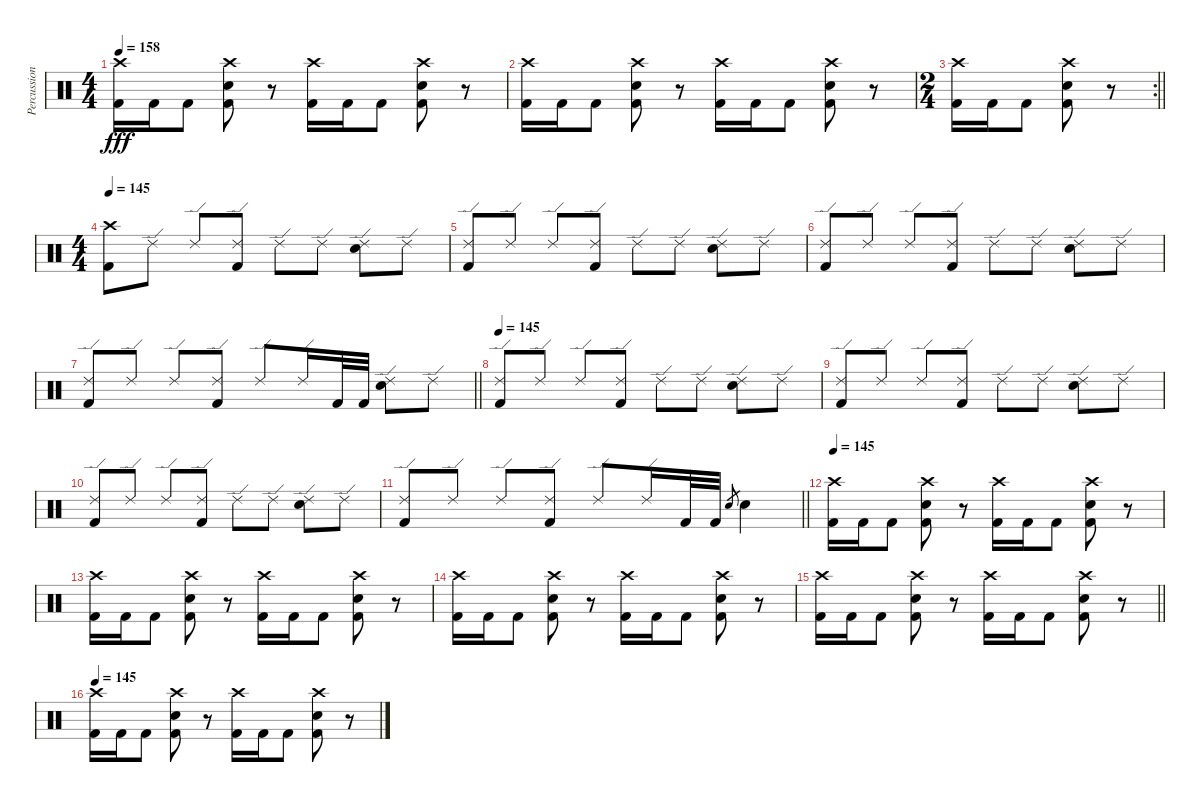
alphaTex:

\track ("Percussion" "Percussion") {instrument percussion}
\staff {score}
\articulation defaults
\ts (4 4)
\tempo 158
\clef neutral
\ks c
("Crash high (hit)" "Kick (hit) 2").16{dy fff} "Kick (hit) 2".16 "Kick (hit) 2".8 ("Crash high (hit)" "Snare (hit) 2" "Kick (hit) 2").8 r.8 ("Crash high (hit)" "Kick (hit) 2").16 "Kick (hit) 2".16 "Kick (hit) 2".8 ("Crash high (hit)" "Snare (hit) 2" "Kick (hit) 2").8 r.8 |
("Crash high (hit)" "Kick (hit) 2").16 "Kick (hit) 2".16 "Kick (hit) 2".8 ("Crash high (hit)" "Snare (hit) 2" "Kick (hit) 2").8 r.8 ("Crash high (hit)" "Kick (hit) 2").16 "Kick (hit) 2".16 "Kick (hit) 2".8 ("Crash high (hit)" "Snare (hit) 2" "Kick (hit) 2").8 r.8 |
\rc 2
\ts (2 4)
\barLineRight lightlight
("Crash high (hit)" "Kick (hit) 2").16 "Kick (hit) 2".16 "Kick (hit) 2".8 ("Crash high (hit)" "Snare (hit) 2" "Kick (hit) 2").8 r.8 |
\ts (4 4)
\section ("" "")
\tempo 145
("Crash high (hit)" "Kick (hit) 2").8 "Ride (edge) 2".8 "Ride (edge) 2".8 ("Ride (edge) 2" "Kick (hit) 2").8 "Ride (edge) 2".8 "Ride (edge) 2".8 ("Ride (edge) 2" "Snare (hit) 2").8 "Ride (edge) 2".8 |
("Ride (edge) 2" "Kick (hit) 2").8 "Ride (edge) 2".8 "Ride (edge) 2".8 ("Ride (edge) 2" "Kick (hit) 2").8 "Ride (edge) 2".8 "Ride (edge) 2".8 ("Ride (edge) 2" "Snare (hit) 2").8 "Ride (edge) 2".8 |
("Ride (edge) 2" "Kick (hit) 2").8 "Ride (edge) 2".8 "Ride (edge) 2".8 ("Ride (edge) 2" "Kick (hit) 2").8 "Ride (edge) 2".8 "Ride (edge) 2".8 ("Ride (edge) 2" "Snare (hit) 2").8 "Ride (edge) 2".8 |
\barLineRight lightlight
("Ride (edge) 2" "Kick (hit) 2").8 "Ride (edge) 2".8 "Ride (edge) 2".8 ("Ride (edge) 2" "Kick (hit) 2").8 "Ride (edge) 2".8 "Ride (edge) 2".16 "Kick (hit) 2".32 "Kick (hit) 2".32 ("Ride (edge) 2" "Snare (hit) 2").8 "Ride (edge) 2".8 |
\tempo 145
("Ride (edge) 2" "Kick (hit) 2").8 "Ride (edge) 2".8 "Ride (edge) 2".8 ("Ride (edge) 2" "Kick (hit) 2").8 "Ride (edge) 2".8 "Ride (edge) 2".8 ("Ride (edge) 2" "Snare (hit) 2").8 "Ride (edge) 2".8 |
("Ride (edge) 2" "Kick (hit) 2").8 "Ride (edge) 2".8 "Ride (edge) 2".8 ("Ride (edge) 2" "Kick (hit) 2").8 "Ride (edge) 2".8 "Ride (edge) 2".8 ("Ride (edge) 2" "Snare (hit) 2").8 "Ride (edge) 2".8 |
("Ride (edge) 2" "Kick (hit) 2").8 "Ride (edge) 2".8 "Ride (edge) 2".8 ("Ride (edge) 2" "Kick (hit) 2").8 "Ride (edge) 2".8 "Ride (edge) 2".8 ("Ride (edge) 2" "Snare (hit) 2").8 "Ride (edge) 2".8 |
\barLineRight lightlight
("Ride (edge) 2" "Kick (hit) 2").8 "Ride (edge) 2".8 "Ride (edge) 2".8 ("Ride (edge) 2" "Kick (hit) 2").8 "Ride (edge) 2".8 "Ride (edge) 2".16 "Kick (hit) 2".32 "Kick (hit) 2".32 "Snare (hit) 2".8{gr} "Snare (hit) 2".4 |
\tempo 145
("Crash high (hit)" "Kick (hit) 2").16 "Kick (hit) 2".16 "Kick (hit) 2".8 ("Crash high (hit)" "Snare (hit) 2" "Kick (hit) 2").8 r.8 ("Crash high (hit)" "Kick (hit) 2").16 "Kick (hit) 2".16 "Kick (hit) 2".8 ("Crash high (hit)" "Snare (hit) 2" "Kick (hit) 2").8 r.8 |
("Crash high (hit)" "Kick (hit) 2").16 "Kick (hit) 2".16 "Kick (hit) 2".8 ("Crash high (hit)" "Snare (hit) 2" "Kick (hit) 2").8 r.8 ("Crash high (hit)" "Kick (hit) 2").16 "Kick (hit) 2".16 "Kick (hit) 2".8 ("Crash high (hit)" "Snare (hit) 2" "Kick (hit) 2").8 r.8 |
("Crash high (hit)" "Kick (hit) 2").16 "Kick (hit) 2".16 "Kick (hit) 2".8 ("Crash high (hit)" "Snare (hit) 2" "Kick (hit) 2").8 r.8 ("Crash high (hit)" "Kick (hit) 2").16 "Kick (hit) 2".16 "Kick (hit) 2".8 ("Crash high (hit)" "Snare (hit) 2" "Kick (hit) 2").8 r.8 |
\barLineRight lightlight
("Crash high (hit)" "Kick (hit) 2").16 "Kick (hit) 2".16 "Kick (hit) 2".8 ("Crash high (hit)" "Snare (hit) 2" "Kick (hit) 2").8 r.8 ("Crash high (hit)" "Kick (hit) 2").16 "Kick (hit) 2".16 "Kick (hit) 2".8 ("Crash high (hit)" "Snare (hit) 2" "Kick (hit) 2").8 r.8 |
\tempo 145
("Crash high (hit)" "Kick (hit) 2").16 "Kick (hit) 2".16 "Kick (hit) 2".8 ("Crash high (hit)" "Snare (hit) 2" "Kick (hit) 2").8 r.8 ("Crash high (hit)" "Kick (hit) 2").16 "Kick (hit) 2".16 "Kick (hit) 2".8 ("Crash high (hit)" "Snare (hit) 2" "Kick (hit) 2").8 r.8
